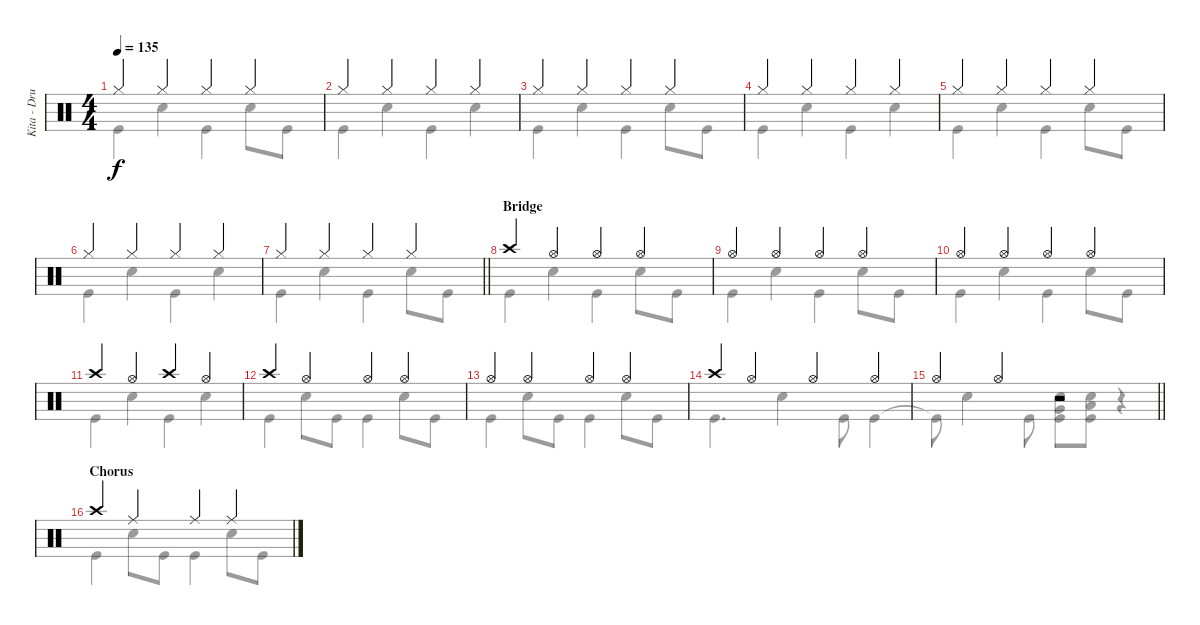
\track ("Kita - Drums" "Kita - Dru") {instrument percussion}
\staff {score}
\articulation defaults
\voice
\ts (4 4)
\tempo 135
\clef neutral
\ks c "Hi-Hat (closed)".4{dy f} "Hi-Hat (closed)".4 "Hi-Hat (closed)".4 "Hi-Hat (closed)".4
|
"Hi-Hat (closed)".4 "Hi-Hat (closed)".4 "Hi-Hat (closed)".4 "Hi-Hat (closed)".4 |
"Hi-Hat (closed)".4 "Hi-Hat (closed)".4 "Hi-Hat (closed)".4 "Hi-Hat (closed)".4 |
"Hi-Hat (closed)".4 "Hi-Hat (closed)".4 "Hi-Hat (closed)".4 "Hi-Hat (closed)".4 |
"Hi-Hat (closed)".4 "Hi-Hat (closed)".4 "Hi-Hat (closed)".4 "Hi-Hat (closed)".4 |
"Hi-Hat (closed)".4 "Hi-Hat (closed)".4 "Hi-Hat (closed)".4 "Hi-Hat (closed)".4 |
\barLineRight lightlight "Hi-Hat (closed)".4 "Hi-Hat (closed)".4 "Hi-Hat (closed)".4 "Hi-Hat (closed)".4
|
\section ("" "Bridge")
"Crash high (hit)".4 "Hi-Hat (open)".4 "Hi-Hat (open)".4 "Hi-Hat (open)".4 |
"Hi-Hat (open)".4 "Hi-Hat (open)".4 "Hi-Hat (open)".4 "Hi-Hat (open)".4 |
"Hi-Hat (open)".4 "Hi-Hat (open)".4 "Hi-Hat (open)".4 "Hi-Hat (open)".4 |
"Crash high (hit)".4 "Hi-Hat (open)".4 "Crash high (hit)".4 "Hi-Hat (open)".4 |
"Crash high (hit)".4 "Hi-Hat (open)".4 "Hi-Hat (open)".4 "Hi-Hat (open)".4 |
"Hi-Hat (open)".4 "Hi-Hat (open)".4 "Hi-Hat (open)".4 "Hi-Hat (open)".4 |
"Crash high (hit)".4 "Hi-Hat (open)".4 "Hi-Hat (open)".4 "Hi-Hat (open)".4 |
\barLineRight lightlight "Hi-Hat (open)".4 "Hi-Hat (open)".4
r.2 |
\section ("" "Chorus")
"Crash high (hit)".4 "Ride (middle)".4 "Ride (middle)".4 "Ride (middle)".4
\voice
\clef neutral
\ottava regular
\simile none
\ks c "Kick (hit)".4{dy f} "Snare (hit) 2".4 "Kick (hit)".4 "Snare (hit) 2".8 "Kick (hit)".8
|
"Kick (hit)".4 "Snare (hit) 2".4 "Kick (hit)".4 "Snare (hit) 2".4 |
"Kick (hit)".4 "Snare (hit) 2".4 "Kick (hit)".4 "Snare (hit) 2".8 "Kick (hit)".8 |
"Kick (hit)".4 "Snare (hit) 2".4 "Kick (hit)".4 "Snare (hit) 2".4 |
"Kick (hit)".4 "Snare (hit) 2".4 "Kick (hit)".4 "Snare (hit) 2".8 "Kick (hit)".8 |
"Kick (hit)".4 "Snare (hit) 2".4 "Kick (hit)".4 "Snare (hit) 2".4 |
\barLineRight lightlight "Kick (hit)".4 "Snare (hit) 2".4 "Kick (hit)".4 "Snare (hit) 2".8 "Kick (hit)".8
|
"Kick (hit)".4 "Snare (hit) 2".4 "Kick (hit)".4 "Snare (hit) 2".8 "Kick (hit)".8 |
"Kick (hit)".4 "Snare (hit) 2".4 "Kick (hit)".4 "Snare (hit) 2".8 "Kick (hit)".8 |
"Kick (hit)".4 "Snare (hit) 2".4 "Kick (hit)".4 "Snare (hit) 2".8 "Kick (hit)".8 |
"Kick (hit)".4 "Snare (hit) 2".4 "Kick (hit)".4 "Snare (hit) 2".4 |
"Kick (hit)".4 "Snare (hit) 2".8 "Kick (hit)".8 "Kick (hit)".4 "Snare (hit) 2".8 "Kick (hit)".8 |
"Kick (hit)".4 "Snare (hit) 2".8 "Kick (hit)".8 "Kick (hit)".4 "Snare (hit) 2".8 "Kick (hit)".8 |
"Kick (hit)".4{d} "Snare (hit) 2".4 "Kick (hit)".8 "Kick (hit)".4 |
\barLineRight lightlight "Kick (hit)"{t}.8 "Snare (hit) 2".4 "Kick (hit)".8
("Very Low Tom (hit)" "Snare (hit) 2" "Kick (hit)").8 ("Low Floor Tom (hit)" "Snare (hit) 2" "Kick (hit)").8 r.4 |
"Kick (hit)".4 "Snare (hit) 2".8 "Kick (hit)".8 "Kick (hit)".4 "Snare (hit) 2".8 "Kick (hit)".8
